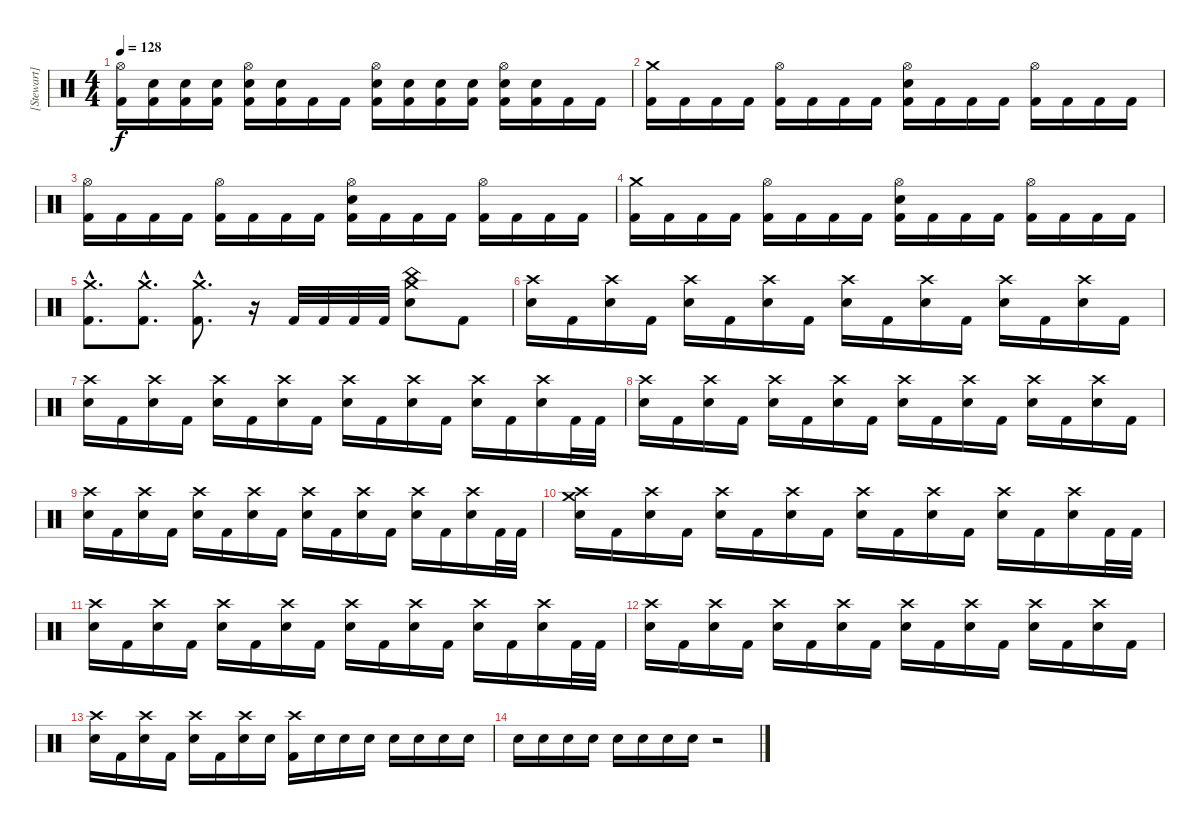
\track ("[Stewart]" "[Stewart]") {instrument percussion}
\staff {score}
\articulation defaults
\ts (4 4)
\tempo 128
\clef neutral
\ks c
("Hi-Hat (open)" "Kick (hit) 2").16{dy f} ("Electric Snare (hit)" "Kick (hit) 2").16 ("Electric Snare (hit)" "Kick (hit) 2").16 ("Electric Snare (hit)" "Kick (hit) 2").16 ("Hi-Hat (open)" "Electric Snare (hit)" "Kick (hit) 2").16 ("Electric Snare (hit)" "Kick (hit) 2").16 "Kick (hit) 2".16 "Kick (hit) 2".16 ("Hi-Hat (open)" "Electric Snare (hit)" "Kick (hit) 2").16 ("Electric Snare (hit)" "Kick (hit) 2").16 ("Electric Snare (hit)" "Kick (hit) 2").16 ("Electric Snare (hit)" "Kick (hit) 2").16 ("Hi-Hat (open)" "Electric Snare (hit)" "Kick (hit) 2").16 ("Electric Snare (hit)" "Kick (hit) 2").16 "Kick (hit) 2".16 "Kick (hit) 2".16 |
("Crash medium (hit)" "Kick (hit) 2").16 "Kick (hit) 2".16 "Kick (hit) 2".16 "Kick (hit) 2".16 ("Hi-Hat (open)" "Kick (hit) 2").16 "Kick (hit) 2".16 "Kick (hit) 2".16 "Kick (hit) 2".16 ("Hi-Hat (open)" "Electric Snare (hit)" "Kick (hit) 2").16 "Kick (hit) 2".16 "Kick (hit) 2".16 "Kick (hit) 2".16 ("Hi-Hat (open)" "Kick (hit) 2").16 "Kick (hit) 2".16 "Kick (hit) 2".16 "Kick (hit) 2".16 |
("Hi-Hat (open)" "Kick (hit) 2").16 "Kick (hit) 2".16 "Kick (hit) 2".16 "Kick (hit) 2".16 ("Hi-Hat (open)" "Kick (hit) 2").16 "Kick (hit) 2".16 "Kick (hit) 2".16 "Kick (hit) 2".16 ("Hi-Hat (open)" "Electric Snare (hit)" "Kick (hit) 2").16 "Kick (hit) 2".16 "Kick (hit) 2".16 "Kick (hit) 2".16 ("Hi-Hat (open)" "Kick (hit) 2").16 "Kick (hit) 2".16 "Kick (hit) 2".16 "Kick (hit) 2".16 |
("Crash medium (hit)" "Kick (hit) 2").16 "Kick (hit) 2".16 "Kick (hit) 2".16 "Kick (hit) 2".16 ("Hi-Hat (open)" "Kick (hit) 2").16 "Kick (hit) 2".16 "Kick (hit) 2".16 "Kick (hit) 2".16 ("Hi-Hat (open)" "Electric Snare (hit)" "Kick (hit) 2").16 "Kick (hit) 2".16 "Kick (hit) 2".16 "Kick (hit) 2".16 ("Hi-Hat (open)" "Kick (hit) 2").16 "Kick (hit) 2".16 "Kick (hit) 2".16 "Kick (hit) 2".16 |
("Crash medium (hit)"{hac} "Kick (hit) 2"{hac}).8{d} ("Crash medium (hit)"{hac} "Kick (hit) 2"{hac}).8{d} ("Crash medium (hit)"{hac} "Kick (hit) 2"{hac}).8{d} r.16 "Kick (hit) 2".32 "Kick (hit) 2".32 "Kick (hit) 2".32 "Kick (hit) 2".32 ("Crash medium (hit)" "China (hit)" "Electric Snare (hit)").8 "Kick (hit) 2".8 |
("Crash high (hit)" "Electric Snare (hit)").16 "Kick (hit) 2".16 ("Crash high (hit)" "Electric Snare (hit)").16 "Kick (hit) 2".16 ("Crash high (hit)" "Electric Snare (hit)").16 "Kick (hit) 2".16 ("Crash high (hit)" "Electric Snare (hit)").16 "Kick (hit) 2".16 ("Crash high (hit)" "Electric Snare (hit)").16 "Kick (hit) 2".16 ("Crash high (hit)" "Electric Snare (hit)").16 "Kick (hit) 2".16 ("Crash high (hit)" "Electric Snare (hit)").16 "Kick (hit) 2".16 ("Crash high (hit)" "Electric Snare (hit)").16 "Kick (hit) 2".16 |
("Crash high (hit)" "Electric Snare (hit)").16 "Kick (hit) 2".16 ("Crash high (hit)" "Electric Snare (hit)").16 "Kick (hit) 2".16 ("Crash high (hit)" "Electric Snare (hit)").16 "Kick (hit) 2".16 ("Crash high (hit)" "Electric Snare (hit)").16 "Kick (hit) 2".16 ("Crash high (hit)" "Electric Snare (hit)").16 "Kick (hit) 2".16 ("Crash high (hit)" "Electric Snare (hit)").16 "Kick (hit) 2".16 ("Crash high (hit)" "Electric Snare (hit)").16 "Kick (hit) 2".16 ("Crash high (hit)" "Electric Snare (hit)").16 "Kick (hit) 2".32 "Kick (hit) 2".32 |
("Crash high (hit)" "Electric Snare (hit)").16 "Kick (hit) 2".16 ("Crash high (hit)" "Electric Snare (hit)").16 "Kick (hit) 2".16 ("Crash high (hit)" "Electric Snare (hit)").16 "Kick (hit) 2".16 ("Crash high (hit)" "Electric Snare (hit)").16 "Kick (hit) 2".16 ("Crash high (hit)" "Electric Snare (hit)").16 "Kick (hit) 2".16 ("Crash high (hit)" "Electric Snare (hit)").16 "Kick (hit) 2".16 ("Crash high (hit)" "Electric Snare (hit)").16 "Kick (hit) 2".16 ("Crash high (hit)" "Electric Snare (hit)").16 "Kick (hit) 2".16 |
("Crash high (hit)" "Electric Snare (hit)").16 "Kick (hit) 2".16 ("Crash high (hit)" "Electric Snare (hit)").16 "Kick (hit) 2".16 ("Crash high (hit)" "Electric Snare (hit)").16 "Kick (hit) 2".16 ("Crash high (hit)" "Electric Snare (hit)").16 "Kick (hit) 2".16 ("Crash high (hit)" "Electric Snare (hit)").16 "Kick (hit) 2".16 ("Crash high (hit)" "Electric Snare (hit)").16 "Kick (hit) 2".16 ("Crash high (hit)" "Electric Snare (hit)").16 "Kick (hit) 2".16 ("Crash high (hit)" "Electric Snare (hit)").16 "Kick (hit) 2".32 "Kick (hit) 2".32 |
("Crash high (hit)" "Crash medium (hit)" "Electric Snare (hit)").16 "Kick (hit) 2".16 ("Crash high (hit)" "Electric Snare (hit)").16 "Kick (hit) 2".16 ("Crash high (hit)" "Electric Snare (hit)").16 "Kick (hit) 2".16 ("Crash high (hit)" "Electric Snare (hit)").16 "Kick (hit) 2".16 ("Crash high (hit)" "Electric Snare (hit)").16 "Kick (hit) 2".16 ("Crash high (hit)" "Electric Snare (hit)").16 "Kick (hit) 2".16 ("Crash high (hit)" "Electric Snare (hit)").16 "Kick (hit) 2".16 ("Crash high (hit)" "Electric Snare (hit)").16 "Kick (hit) 2".32 "Kick (hit) 2".32 |
("Crash high (hit)" "Electric Snare (hit)").16 "Kick (hit) 2".16 ("Crash high (hit)" "Electric Snare (hit)").16 "Kick (hit) 2".16 ("Crash high (hit)" "Electric Snare (hit)").16 "Kick (hit) 2".16 ("Crash high (hit)" "Electric Snare (hit)").16 "Kick (hit) 2".16 ("Crash high (hit)" "Electric Snare (hit)").16 "Kick (hit) 2".16 ("Crash high (hit)" "Electric Snare (hit)").16 "Kick (hit) 2".16 ("Crash high (hit)" "Electric Snare (hit)").16 "Kick (hit) 2".16 ("Crash high (hit)" "Electric Snare (hit)").16 "Kick (hit) 2".32 "Kick (hit) 2".32 |
("Crash high (hit)" "Electric Snare (hit)").16 "Kick (hit) 2".16 ("Crash high (hit)" "Electric Snare (hit)").16 "Kick (hit) 2".16 ("Crash high (hit)" "Electric Snare (hit)").16 "Kick (hit) 2".16 ("Crash high (hit)" "Electric Snare (hit)").16 "Kick (hit) 2".16 ("Crash high (hit)" "Electric Snare (hit)").16 "Kick (hit) 2".16 ("Crash high (hit)" "Electric Snare (hit)").16 "Kick (hit) 2".16 ("Crash high (hit)" "Electric Snare (hit)").16 "Kick (hit) 2".16 ("Crash high (hit)" "Electric Snare (hit)").16 "Kick (hit) 2".16 |
("Crash high (hit)" "Electric Snare (hit)").16 "Kick (hit) 2".16 ("Crash high (hit)" "Electric Snare (hit)").16 "Kick (hit) 2".16 ("Crash high (hit)" "Electric Snare (hit)").16 "Kick (hit) 2".16 ("Crash high (hit)" "Electric Snare (hit)").16 "Electric Snare (hit)".16 ("Crash high (hit)" "Kick (hit) 2").16 "Electric Snare (hit)".16 "Electric Snare (hit)".16 "Electric Snare (hit)".16 "Electric Snare (hit)".16 "Electric Snare (hit)".16 "Electric Snare (hit)".16 "Electric Snare (hit)".16 |
"Electric Snare (hit)".16 "Electric Snare (hit)".16 "Electric Snare (hit)".16 "Electric Snare (hit)".16 "Electric Snare (hit)".16 "Electric Snare (hit)".16 "Electric Snare (hit)".16 "Electric Snare (hit)".16 r.2
